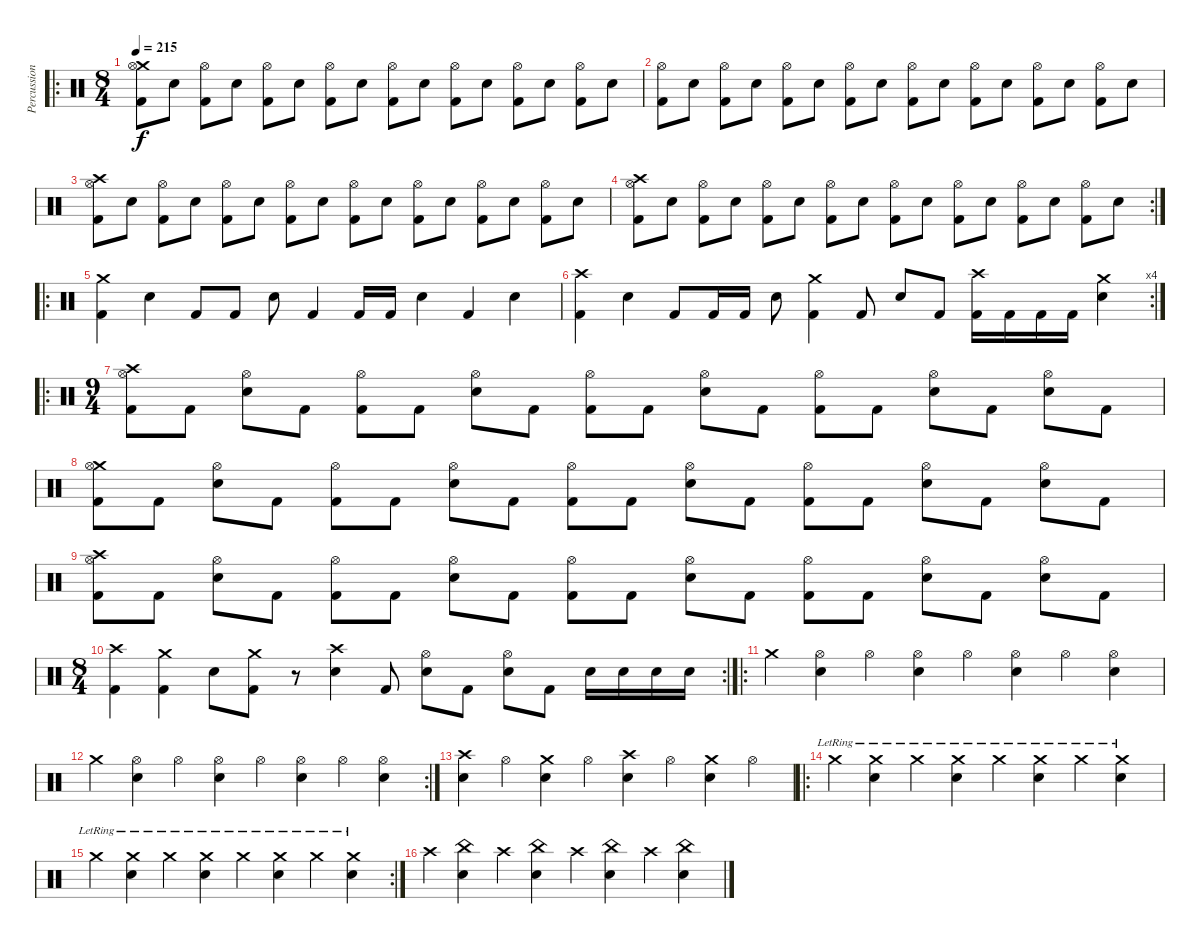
\track ("Percussion" "Percussion") {instrument percussion}
\staff {score}
\articulation defaults
\ro
\ts (8 4)
\tempo 215
\clef neutral
\ks c
("Crash medium (hit)" "Hi-Hat (open)" "Kick (hit) 2").8{dy f} "Snare (hit) 2".8 ("Hi-Hat (open)" "Kick (hit) 2").8 "Snare (hit) 2".8 ("Hi-Hat (open)" "Kick (hit) 2").8 "Snare (hit) 2".8 ("Hi-Hat (open)" "Kick (hit) 2").8 "Snare (hit) 2".8 ("Hi-Hat (open)" "Kick (hit) 2").8 "Snare (hit) 2".8 ("Hi-Hat (open)" "Kick (hit) 2").8 "Snare (hit) 2".8 ("Hi-Hat (open)" "Kick (hit) 2").8 "Snare (hit) 2".8 ("Hi-Hat (open)" "Kick (hit) 2").8 "Snare (hit) 2".8 |
("Hi-Hat (open)" "Kick (hit) 2").8 "Snare (hit) 2".8 ("Hi-Hat (open)" "Kick (hit) 2").8 "Snare (hit) 2".8 ("Hi-Hat (open)" "Kick (hit) 2").8 "Snare (hit) 2".8 ("Hi-Hat (open)" "Kick (hit) 2").8 "Snare (hit) 2".8 ("Hi-Hat (open)" "Kick (hit) 2").8 "Snare (hit) 2".8 ("Hi-Hat (open)" "Kick (hit) 2").8 "Snare (hit) 2".8 ("Hi-Hat (open)" "Kick (hit) 2").8 "Snare (hit) 2".8 ("Hi-Hat (open)" "Kick (hit) 2").8 "Snare (hit) 2".8 |
("Crash high (hit)" "Hi-Hat (open)" "Kick (hit) 2").8 "Snare (hit) 2".8 ("Hi-Hat (open)" "Kick (hit) 2").8 "Snare (hit) 2".8 ("Hi-Hat (open)" "Kick (hit) 2").8 "Snare (hit) 2".8 ("Hi-Hat (open)" "Kick (hit) 2").8 "Snare (hit) 2".8 ("Hi-Hat (open)" "Kick (hit) 2").8 "Snare (hit) 2".8 ("Hi-Hat (open)" "Kick (hit) 2").8 "Snare (hit) 2".8 ("Hi-Hat (open)" "Kick (hit) 2").8 "Snare (hit) 2".8 ("Hi-Hat (open)" "Kick (hit) 2").8 "Snare (hit) 2".8 |
\rc 2
("Crash high (hit)" "Hi-Hat (open)" "Kick (hit) 2").8 "Snare (hit) 2".8 ("Hi-Hat (open)" "Kick (hit) 2").8 "Snare (hit) 2".8 ("Hi-Hat (open)" "Kick (hit) 2").8 "Snare (hit) 2".8 ("Hi-Hat (open)" "Kick (hit) 2").8 "Snare (hit) 2".8 ("Hi-Hat (open)" "Kick (hit) 2").8 "Snare (hit) 2".8 ("Hi-Hat (open)" "Kick (hit) 2").8 "Snare (hit) 2".8 ("Hi-Hat (open)" "Kick (hit) 2").8 "Snare (hit) 2".8 ("Hi-Hat (open)" "Kick (hit) 2").8 "Snare (hit) 2".8 |
\ro
("Crash medium (hit)" "Kick (hit) 2").4 "Snare (hit) 2".4 "Kick (hit) 2".8 "Kick (hit) 2".8 "Snare (hit) 2".8 "Kick (hit) 2".4 "Kick (hit) 2".16 "Kick (hit) 2".16 "Snare (hit) 2".4 "Kick (hit) 2".4 "Snare (hit) 2".4 |
\rc 4
("Crash high (hit)" "Kick (hit) 2").4 "Snare (hit) 2".4 "Kick (hit) 2".8 "Kick (hit) 2".16 "Kick (hit) 2".16 "Snare (hit) 2".8 ("Crash medium (hit)" "Kick (hit) 2").4 "Kick (hit) 2".8 "Snare (hit) 2".8 "Kick (hit) 2".8 ("Crash high (hit)" "Kick (hit) 2").16 "Kick (hit) 2".16 "Kick (hit) 2".16 "Kick (hit) 2".16 ("Crash medium (hit)" "Snare (hit) 2").4 |
\ro
\ts (9 4)
("Crash high (hit)" "Hi-Hat (open)" "Kick (hit) 2").8 "Kick (hit) 2".8 ("Hi-Hat (open)" "Snare (hit) 2").8 "Kick (hit) 2".8 ("Hi-Hat (open)" "Kick (hit) 2").8 "Kick (hit) 2".8 ("Hi-Hat (open)" "Snare (hit) 2").8 "Kick (hit) 2".8 ("Hi-Hat (open)" "Kick (hit) 2").8 "Kick (hit) 2".8 ("Hi-Hat (open)" "Snare (hit) 2").8 "Kick (hit) 2".8 ("Hi-Hat (open)" "Kick (hit) 2").8 "Kick (hit) 2".8 ("Hi-Hat (open)" "Snare (hit) 2").8 "Kick (hit) 2".8 ("Hi-Hat (open)" "Snare (hit) 2").8 "Kick (hit) 2".8 |
("Crash medium (hit)" "Hi-Hat (open)" "Kick (hit) 2").8 "Kick (hit) 2".8 ("Hi-Hat (open)" "Snare (hit) 2").8 "Kick (hit) 2".8 ("Hi-Hat (open)" "Kick (hit) 2").8 "Kick (hit) 2".8 ("Hi-Hat (open)" "Snare (hit) 2").8 "Kick (hit) 2".8 ("Hi-Hat (open)" "Kick (hit) 2").8 "Kick (hit) 2".8 ("Hi-Hat (open)" "Snare (hit) 2").8 "Kick (hit) 2".8 ("Hi-Hat (open)" "Kick (hit) 2").8 "Kick (hit) 2".8 ("Hi-Hat (open)" "Snare (hit) 2").8 "Kick (hit) 2".8 ("Hi-Hat (open)" "Snare (hit) 2").8 "Kick (hit) 2".8 |
("Crash high (hit)" "Hi-Hat (open)" "Kick (hit) 2").8 "Kick (hit) 2".8 ("Hi-Hat (open)" "Snare (hit) 2").8 "Kick (hit) 2".8 ("Hi-Hat (open)" "Kick (hit) 2").8 "Kick (hit) 2".8 ("Hi-Hat (open)" "Snare (hit) 2").8 "Kick (hit) 2".8 ("Hi-Hat (open)" "Kick (hit) 2").8 "Kick (hit) 2".8 ("Hi-Hat (open)" "Snare (hit) 2").8 "Kick (hit) 2".8 ("Hi-Hat (open)" "Kick (hit) 2").8 "Kick (hit) 2".8 ("Hi-Hat (open)" "Snare (hit) 2").8 "Kick (hit) 2".8 ("Hi-Hat (open)" "Snare (hit) 2").8 "Kick (hit) 2".8 |
\rc 2
\ts (8 4)
("Crash high (hit)" "Kick (hit) 2").4 ("Crash medium (hit)" "Kick (hit) 2").4 "Snare (hit) 2".8 ("Crash medium (hit)" "Kick (hit) 2").8 r.8 ("Crash high (hit)" "Snare (hit) 2").4 "Kick (hit) 2".8 ("Hi-Hat (open)" "Snare (hit) 2").8 "Kick (hit) 2".8 ("Hi-Hat (open)" "Snare (hit) 2").8 "Kick (hit) 2".8 "Snare (hit) 2".16 "Snare (hit) 2".16 "Snare (hit) 2".16 "Snare (hit) 2".16 |
\ro "Crash medium (hit)".4
("Hi-Hat (open)" "Snare (hit) 2").4 "Hi-Hat (open)".4 ("Hi-Hat (open)" "Snare (hit) 2").4 "Hi-Hat (open)".4 ("Hi-Hat (open)" "Snare (hit) 2").4 "Hi-Hat (open)".4 ("Hi-Hat (open)" "Snare (hit) 2").4 |
\rc 2 "Crash medium (hit)".4
("Hi-Hat (open)" "Snare (hit) 2").4 "Hi-Hat (open)".4 ("Hi-Hat (open)" "Snare (hit) 2").4 "Hi-Hat (open)".4 ("Hi-Hat (open)" "Snare (hit) 2").4 "Hi-Hat (open)".4 ("Hi-Hat (open)" "Snare (hit) 2").4 |
("Crash high (hit)" "Snare (hit) 2").4 "Hi-Hat (open)".4 ("Crash medium (hit)" "Snare (hit) 2").4 "Hi-Hat (open)".4 ("Crash high (hit)" "Snare (hit) 2").4 "Hi-Hat (open)".4 ("Crash medium (hit)" "Snare (hit) 2").4 "Hi-Hat (open)".4 |
\ro "Crash medium (hit)"{lr}.4
("Crash medium (hit)"{lr} "Snare (hit) 2").4 "Crash medium (hit)"{lr}.4 ("Crash medium (hit)"{lr} "Snare (hit) 2").4 "Crash medium (hit)"{lr}.4 ("Crash medium (hit)"{lr} "Snare (hit) 2").4 "Crash medium (hit)"{lr}.4 ("Crash medium (hit)"{lr} "Snare (hit) 2").4 |
\rc 2 "Crash medium (hit)"{lr}.4
("Crash medium (hit)"{lr} "Snare (hit) 2").4 "Crash medium (hit)"{lr}.4 ("Crash medium (hit)"{lr} "Snare (hit) 2").4 "Crash medium (hit)"{lr}.4 ("Crash medium (hit)"{lr} "Snare (hit) 2").4 "Crash medium (hit)"{lr}.4 ("Crash medium (hit)"{lr} "Snare (hit) 2").4 |
"Crash high (hit)".4 ("China (hit)" "Snare (hit) 2").4 "Crash high (hit)".4 ("China (hit)" "Snare (hit) 2").4 "Crash high (hit)".4 ("China (hit)" "Snare (hit) 2").4 "Crash high (hit)".4 ("China (hit)" "Snare (hit) 2").4
